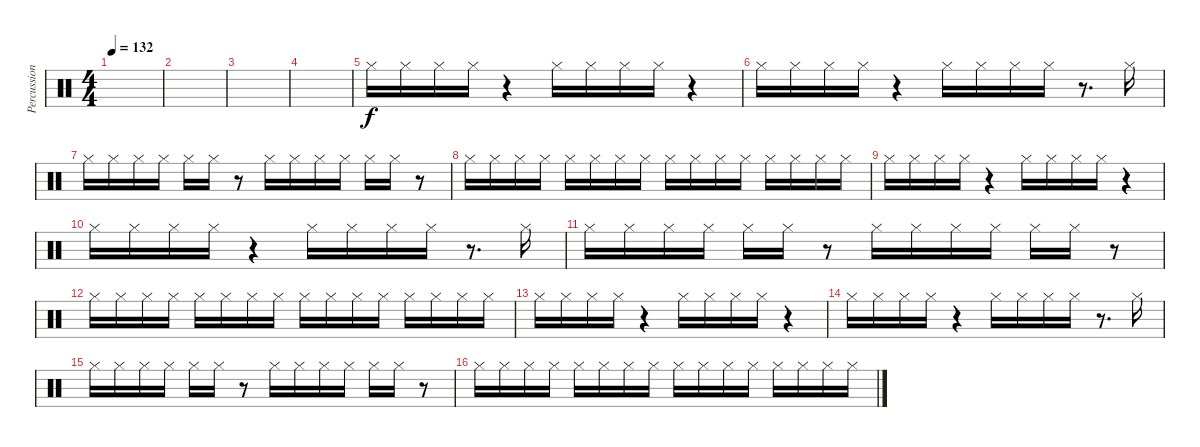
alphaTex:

\track ("Percussions" "Percussion") {instrument percussion}
\staff {score}
\articulation defaults
\ts (4 4)
\tempo 132
\clef neutral
\ks c
|
|
|
|
"Hi-Hat (closed)".16 "Hi-Hat (closed)".16 "Hi-Hat (closed)".16 "Hi-Hat (closed)".16 r.4 "Hi-Hat (closed)".16 "Hi-Hat (closed)".16 "Hi-Hat (closed)".16 "Hi-Hat (closed)".16 r.4 |
"Hi-Hat (closed)".16 "Hi-Hat (closed)".16 "Hi-Hat (closed)".16 "Hi-Hat (closed)".16 r.4 "Hi-Hat (closed)".16 "Hi-Hat (closed)".16 "Hi-Hat (closed)".16 "Hi-Hat (closed)".16 r.8{d} "Hi-Hat (closed)".16 |
"Hi-Hat (closed)".16 "Hi-Hat (closed)".16 "Hi-Hat (closed)".16 "Hi-Hat (closed)".16 "Hi-Hat (closed)".16 "Hi-Hat (closed)".16 r.8 "Hi-Hat (closed)".16 "Hi-Hat (closed)".16 "Hi-Hat (closed)".16 "Hi-Hat (closed)".16 "Hi-Hat (closed)".16 "Hi-Hat (closed)".16 r.8 |
"Hi-Hat (closed)".16 "Hi-Hat (closed)".16 "Hi-Hat (closed)".16 "Hi-Hat (closed)".16 "Hi-Hat (closed)".16 "Hi-Hat (closed)".16 "Hi-Hat (closed)".16 "Hi-Hat (closed)".16 "Hi-Hat (closed)".16 "Hi-Hat (closed)".16 "Hi-Hat (closed)".16 "Hi-Hat (closed)".16 "Hi-Hat (closed)".16 "Hi-Hat (closed)".16 "Hi-Hat (closed)".16 "Hi-Hat (closed)".16 |
"Hi-Hat (closed)".16 "Hi-Hat (closed)".16 "Hi-Hat (closed)".16 "Hi-Hat (closed)".16 r.4 "Hi-Hat (closed)".16 "Hi-Hat (closed)".16 "Hi-Hat (closed)".16 "Hi-Hat (closed)".16 r.4 |
"Hi-Hat (closed)".16 "Hi-Hat (closed)".16 "Hi-Hat (closed)".16 "Hi-Hat (closed)".16 r.4 "Hi-Hat (closed)".16 "Hi-Hat (closed)".16 "Hi-Hat (closed)".16 "Hi-Hat (closed)".16 r.8{d} "Hi-Hat (closed)".16 |
"Hi-Hat (closed)".16 "Hi-Hat (closed)".16 "Hi-Hat (closed)".16 "Hi-Hat (closed)".16 "Hi-Hat (closed)".16 "Hi-Hat (closed)".16 r.8 "Hi-Hat (closed)".16 "Hi-Hat (closed)".16 "Hi-Hat (closed)".16 "Hi-Hat (closed)".16 "Hi-Hat (closed)".16 "Hi-Hat (closed)".16 r.8 |
"Hi-Hat (closed)".16 "Hi-Hat (closed)".16 "Hi-Hat (closed)".16 "Hi-Hat (closed)".16 "Hi-Hat (closed)".16 "Hi-Hat (closed)".16 "Hi-Hat (closed)".16 "Hi-Hat (closed)".16 "Hi-Hat (closed)".16 "Hi-Hat (closed)".16 "Hi-Hat (closed)".16 "Hi-Hat (closed)".16 "Hi-Hat (closed)".16 "Hi-Hat (closed)".16 "Hi-Hat (closed)".16 "Hi-Hat (closed)".16 |
"Hi-Hat (closed)".16 "Hi-Hat (closed)".16 "Hi-Hat (closed)".16 "Hi-Hat (closed)".16 r.4 "Hi-Hat (closed)".16 "Hi-Hat (closed)".16 "Hi-Hat (closed)".16 "Hi-Hat (closed)".16 r.4 |
"Hi-Hat (closed)".16 "Hi-Hat (closed)".16 "Hi-Hat (closed)".16 "Hi-Hat (closed)".16 r.4 "Hi-Hat (closed)".16 "Hi-Hat (closed)".16 "Hi-Hat (closed)".16 "Hi-Hat (closed)".16 r.8{d} "Hi-Hat (closed)".16 |
"Hi-Hat (closed)".16 "Hi-Hat (closed)".16 "Hi-Hat (closed)".16 "Hi-Hat (closed)".16 "Hi-Hat (closed)".16 "Hi-Hat (closed)".16 r.8 "Hi-Hat (closed)".16 "Hi-Hat (closed)".16 "Hi-Hat (closed)".16 "Hi-Hat (closed)".16 "Hi-Hat (closed)".16 "Hi-Hat (closed)".16 r.8 |
"Hi-Hat (closed)".16 "Hi-Hat (closed)".16 "Hi-Hat (closed)".16 "Hi-Hat (closed)".16 "Hi-Hat (closed)".16 "Hi-Hat (closed)".16 "Hi-Hat (closed)".16 "Hi-Hat (closed)".16 "Hi-Hat (closed)".16 "Hi-Hat (closed)".16 "Hi-Hat (closed)".16 "Hi-Hat (closed)".16 "Hi-Hat (closed)".16 "Hi-Hat (closed)".16 "Hi-Hat (closed)".16 "Hi-Hat (closed)".16
